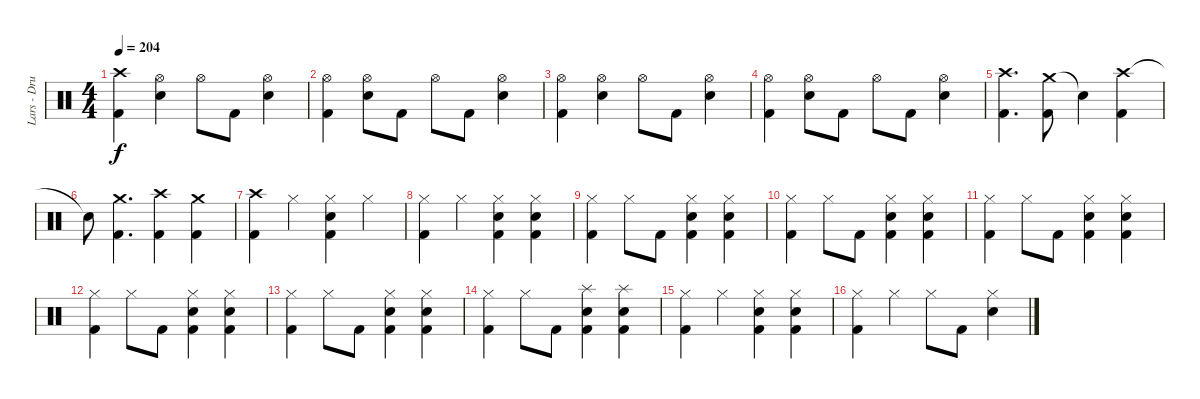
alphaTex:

\track ("Lars - Drums" "Lars - Dru") {instrument percussion}
\staff {score}
\articulation defaults
\ts (4 4)
\tempo 204
\clef neutral
\ks c
("Crash high (hit)" "Kick (hit) 2").4{dy f} ("Hi-Hat (open)" "Electric Snare (hit)").4 "Hi-Hat (open)".8 "Kick (hit) 2".8 ("Hi-Hat (open)" "Electric Snare (hit)").4 |
("Hi-Hat (open)" "Kick (hit) 2").4 ("Hi-Hat (open)" "Electric Snare (hit)").8 "Kick (hit) 2".8 "Hi-Hat (open)".8 "Kick (hit) 2".8 ("Hi-Hat (open)" "Electric Snare (hit)").4 |
("Hi-Hat (open)" "Kick (hit) 2").4 ("Hi-Hat (open)" "Electric Snare (hit)").4 "Hi-Hat (open)".8 "Kick (hit) 2".8 ("Hi-Hat (open)" "Electric Snare (hit)").4 |
("Hi-Hat (open)" "Kick (hit) 2").4 ("Hi-Hat (open)" "Electric Snare (hit)").8 "Kick (hit) 2".8 "Hi-Hat (open)".8 "Kick (hit) 2".8 ("Hi-Hat (open)" "Electric Snare (hit)").4 |
("Crash high (hit)" "Kick (hit) 2").4{d} ("Crash medium (hit)" "Kick (hit) 2").8 "Snare (hit)"{t}.4 ("Crash high (hit)" "Kick (hit) 2").4 |
"Snare (hit)"{t}.8 ("Crash medium (hit)" "Kick (hit) 2").4{d} ("Crash high (hit)" "Kick (hit) 2").4 ("Crash medium (hit)" "Kick (hit) 2").4 |
("Crash high (hit)" "Kick (hit) 2").4 "Hi-Hat (closed)".4 ("Hi-Hat (closed)" "Electric Snare (hit)" "Kick (hit) 2").4 "Hi-Hat (closed)".4 |
("Hi-Hat (closed)" "Kick (hit) 2").4 "Hi-Hat (closed)".4 ("Hi-Hat (closed)" "Electric Snare (hit)" "Kick (hit) 2").4 ("Hi-Hat (closed)" "Electric Snare (hit)" "Kick (hit) 2").4 |
("Hi-Hat (closed)" "Kick (hit) 2").4 "Hi-Hat (closed)".8 "Kick (hit) 2".8 ("Hi-Hat (closed)" "Electric Snare (hit)" "Kick (hit) 2").4 ("Hi-Hat (closed)" "Electric Snare (hit)" "Kick (hit) 2").4 |
("Hi-Hat (closed)" "Kick (hit) 2").4 "Hi-Hat (closed)".8 "Kick (hit) 2".8 ("Hi-Hat (closed)" "Electric Snare (hit)" "Kick (hit) 2").4 ("Hi-Hat (closed)" "Electric Snare (hit)" "Kick (hit) 2").4 |
("Hi-Hat (closed)" "Kick (hit) 2").4 "Hi-Hat (closed)".8 "Kick (hit) 2".8 ("Hi-Hat (closed)" "Electric Snare (hit)" "Kick (hit) 2").4 ("Hi-Hat (closed)" "Electric Snare (hit)" "Kick (hit) 2").4 |
("Hi-Hat (closed)" "Kick (hit) 2").4 "Hi-Hat (closed)".8 "Kick (hit) 2".8 ("Hi-Hat (closed)" "Electric Snare (hit)" "Kick (hit) 2").4 ("Hi-Hat (closed)" "Electric Snare (hit)" "Kick (hit) 2").4 |
("Hi-Hat (closed)" "Kick (hit) 2").4 "Hi-Hat (closed)".8 "Kick (hit) 2".8 ("Hi-Hat (closed)" "Electric Snare (hit)" "Kick (hit) 2").4 ("Hi-Hat (closed)" "Electric Snare (hit)" "Kick (hit) 2").4 |
("Hi-Hat (closed)" "Kick (hit) 2").4 "Hi-Hat (closed)".8 "Kick (hit) 2".8 ("Splash (hit)" "Electric Snare (hit)" "Kick (hit) 2").4 ("Splash (hit)" "Electric Snare (hit)" "Kick (hit) 2").4 |
("Hi-Hat (closed)" "Kick (hit) 2").4 "Hi-Hat (closed)".4 ("Hi-Hat (closed)" "Electric Snare (hit)" "Kick (hit) 2").4 ("Hi-Hat (closed)" "Electric Snare (hit)" "Kick (hit) 2").4 |
("Hi-Hat (closed)" "Kick (hit) 2").4 "Hi-Hat (closed)".4 "Hi-Hat (closed)".8 "Kick (hit) 2".8 ("Hi-Hat (closed)" "Electric Snare (hit)").4
